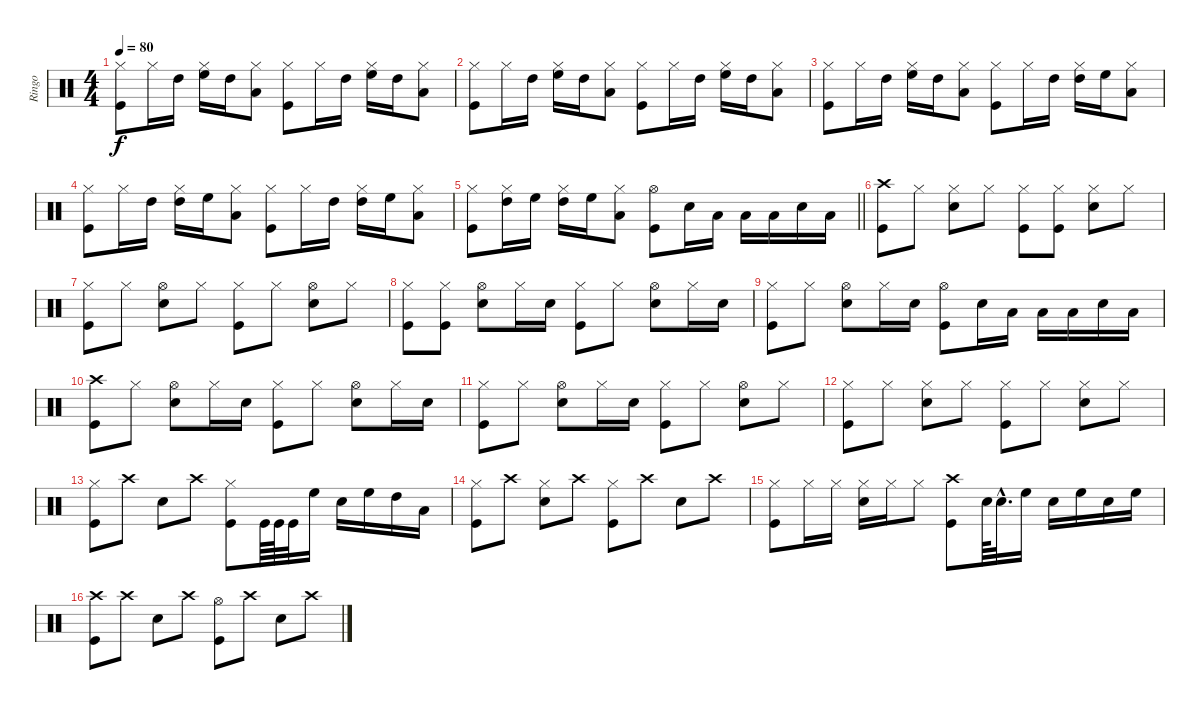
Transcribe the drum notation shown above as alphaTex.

\track ("Ringo" "Ringo") {instrument percussion}
\staff {score}
\articulation defaults
\ts (4 4)
\tempo 80
\clef neutral
\ks c
("Hi-Hat (closed)" "Kick (hit)").8{dy f} "Hi-Hat (closed)".16 "High Tom (hit)".16 ("Hi-Hat (closed)" "High Floor Tom (hit)").16 "High Tom (hit)".16 ("Hi-Hat (closed)" "Low Tom (hit)").8 ("Hi-Hat (closed)" "Kick (hit)").8 "Hi-Hat (closed)".16 "High Tom (hit)".16 ("Hi-Hat (closed)" "High Floor Tom (hit)").16 "High Tom (hit)".16 ("Hi-Hat (closed)" "Low Tom (hit)").8 |
("Hi-Hat (closed)" "Kick (hit)").8 "Hi-Hat (closed)".16 "High Tom (hit)".16 ("Hi-Hat (closed)" "High Floor Tom (hit)").16 "High Tom (hit)".16 ("Hi-Hat (closed)" "Low Tom (hit)").8 ("Hi-Hat (closed)" "Kick (hit)").8 "Hi-Hat (closed)".16 "High Tom (hit)".16 ("Hi-Hat (closed)" "High Floor Tom (hit)").16 "High Tom (hit)".16 ("Hi-Hat (closed)" "Low Tom (hit)").8 |
("Hi-Hat (closed)" "Kick (hit)").8 "Hi-Hat (closed)".16 "High Tom (hit)".16 ("Hi-Hat (closed)" "High Floor Tom (hit)").16 "High Tom (hit)".16 ("Hi-Hat (closed)" "Low Tom (hit)").8 ("Hi-Hat (closed)" "Kick (hit)").8 "Hi-Hat (closed)".16 "High Tom (hit)".16 ("Hi-Hat (closed)" "High Tom (hit)").16 "High Floor Tom (hit)".16 ("Hi-Hat (closed)" "Low Tom (hit)").8 |
("Hi-Hat (closed)" "Kick (hit)").8 "Hi-Hat (closed)".16 "High Tom (hit)".16 ("Hi-Hat (closed)" "High Tom (hit)").16 "High Floor Tom (hit)".16 ("Hi-Hat (closed)" "Low Tom (hit)").8 ("Hi-Hat (closed)" "Kick (hit)").8 "Hi-Hat (closed)".16 "High Tom (hit)".16 ("Hi-Hat (closed)" "High Tom (hit)").16 "High Floor Tom (hit)".16 ("Hi-Hat (closed)" "Low Tom (hit)").8 |
\barLineRight lightlight
("Hi-Hat (closed)" "Kick (hit)").8 ("Hi-Hat (closed)" "High Tom (hit)").16 "High Floor Tom (hit)".16 ("Hi-Hat (closed)" "High Tom (hit)").16 "High Floor Tom (hit)".16 ("Hi-Hat (closed)" "Low Tom (hit)").8 ("Hi-Hat (open)" "Kick (hit)").8 "Snare (hit) 2".16 "Low Tom (hit)".16 "Low Tom (hit)".16 "Low Tom (hit)".16 "Snare (hit) 2".16 "Low Tom (hit)".16 |
("Crash high (hit)" "Kick (hit)").8 "Hi-Hat (closed)".8 ("Hi-Hat (closed)" "Snare (hit) 2").8 "Hi-Hat (closed)".8 ("Hi-Hat (closed)" "Kick (hit)").8 ("Hi-Hat (closed)" "Kick (hit)").8 ("Hi-Hat (closed)" "Snare (hit) 2").8 "Hi-Hat (closed)".8 |
("Hi-Hat (closed)" "Kick (hit)").8 "Hi-Hat (closed)".8 ("Hi-Hat (open)" "Snare (hit) 2").8 "Hi-Hat (closed)".8 ("Hi-Hat (closed)" "Kick (hit)").8 "Hi-Hat (closed)".8 ("Hi-Hat (open)" "Snare (hit) 2").8 "Hi-Hat (closed)".8 |
("Hi-Hat (closed)" "Kick (hit)").8 ("Hi-Hat (closed)" "Kick (hit)").8 ("Hi-Hat (open)" "Snare (hit) 2").8 "Hi-Hat (closed)".16 "Snare (hit) 2".16 ("Hi-Hat (closed)" "Kick (hit)").8 "Hi-Hat (closed)".8 ("Hi-Hat (open)" "Snare (hit) 2").8 "Hi-Hat (closed)".16 "Snare (hit) 2".16 |
("Hi-Hat (closed)" "Kick (hit)").8 "Hi-Hat (closed)".8 ("Hi-Hat (open)" "Snare (hit) 2").8 "Hi-Hat (closed)".16 "Snare (hit) 2".16 ("Hi-Hat (open)" "Kick (hit)").8 "Snare (hit) 2".16 "Low Tom (hit)".16 "Low Tom (hit)".16 "Low Tom (hit)".16 "Snare (hit) 2".16 "Low Tom (hit)".16 |
("Crash high (hit)" "Kick (hit)").8 "Hi-Hat (closed)".8 ("Hi-Hat (open)" "Snare (hit) 2").8 "Hi-Hat (closed)".16 "Snare (hit) 2".16 ("Hi-Hat (closed)" "Kick (hit)").8 "Hi-Hat (closed)".8 ("Hi-Hat (open)" "Snare (hit) 2").8 "Hi-Hat (closed)".16 "Snare (hit) 2".16 |
("Hi-Hat (closed)" "Kick (hit)").8 "Hi-Hat (closed)".8 ("Hi-Hat (open)" "Snare (hit) 2").8 "Hi-Hat (closed)".16 "Snare (hit) 2".16 ("Hi-Hat (closed)" "Kick (hit)").8 "Hi-Hat (closed)".8 ("Hi-Hat (open)" "Snare (hit) 2").8 "Hi-Hat (closed)".8 |
("Hi-Hat (closed)" "Kick (hit)").8 "Hi-Hat (closed)".8 ("Hi-Hat (closed)" "Snare (hit) 2").8 "Hi-Hat (closed)".8 ("Hi-Hat (closed)" "Kick (hit)").8 "Hi-Hat (closed)".8 ("Hi-Hat (closed)" "Snare (hit) 2").8 "Hi-Hat (closed)".8 |
("Hi-Hat (closed)" "Kick (hit)").8 "Crash high (hit)".8 "Snare (hit) 2".8 "Crash high (hit)".8 ("Hi-Hat (closed)" "Kick (hit)").8 "Kick (hit)".64 "Kick (hit)".64 "Kick (hit)".32 "High Floor Tom (hit)".16 "Snare (hit) 2".16 "High Floor Tom (hit)".16 "High Tom (hit)".16 "Low Tom (hit)".16 |
("Hi-Hat (closed)" "Kick (hit)").8 "Crash high (hit)".8 ("Hi-Hat (closed)" "Snare (hit) 2").8 "Crash high (hit)".8 ("Hi-Hat (closed)" "Kick (hit)").8 "Crash high (hit)".8 "Snare (hit) 2".8 "Crash high (hit)".8 |
("Hi-Hat (closed)" "Kick (hit)").8 "Hi-Hat (closed)".16 "Hi-Hat (closed)".16 ("Hi-Hat (closed)" "Snare (hit) 2").16 "Hi-Hat (closed)".16 "Hi-Hat (closed)".8 ("Crash high (hit)" "Kick (hit)").8 "Snare (hit) 2".64 "Snare (hit) 2"{hac}.32{d} "High Floor Tom (hit)".16 "Snare (hit) 2".16 "High Floor Tom (hit)".16 "Snare (hit) 2".16 "High Floor Tom (hit)".16 |
("Crash high (hit)" "Kick (hit)").8 "Crash high (hit)".8 "Snare (hit) 2".8 "Crash high (hit)".8 ("Hi-Hat (open)" "Kick (hit)").8 "Crash high (hit)".8 "Snare (hit) 2".8 "Crash high (hit)".8
